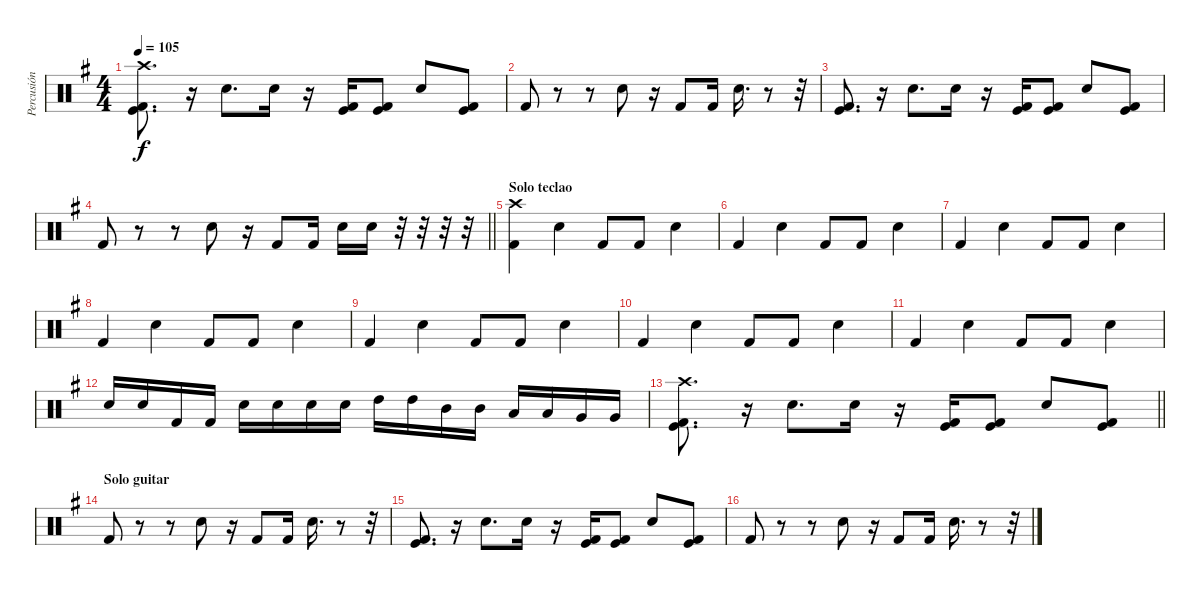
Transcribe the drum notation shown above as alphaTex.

\track ("Percusión" "Percusión") {instrument percussion}
\staff {score}
\articulation defaults
\ts (4 4)
\tempo 105
\clef neutral
\ks g
("Crash high (hit)" "Kick (hit)" "Kick (hit) 2").8{d dy f} r.16 "Electric Snare (hit)".8{d} "Electric Snare (hit)".16 r.16 ("Kick (hit)" "Kick (hit) 2").16 ("Kick (hit)" "Kick (hit) 2").8 "Electric Snare (hit)".8 ("Kick (hit)" "Kick (hit) 2").8 |
"Kick (hit) 2".8 r.8 r.8 "Electric Snare (hit)".8 r.16 "Kick (hit) 2".8 "Kick (hit) 2".16 "Electric Snare (hit)".16{d} r.8 r.32 |
("Kick (hit)" "Kick (hit) 2").8{d} r.16 "Electric Snare (hit)".8{d} "Electric Snare (hit)".16 r.16 ("Kick (hit)" "Kick (hit) 2").16 ("Kick (hit)" "Kick (hit) 2").8 "Electric Snare (hit)".8 ("Kick (hit)" "Kick (hit) 2").8 |
\barLineRight lightlight "Kick (hit) 2".8
r.8 r.8 "Electric Snare (hit)".8 r.16 "Kick (hit) 2".8 "Kick (hit) 2".16 "Electric Snare (hit)".16 "Electric Snare (hit)".16 r.32 r.32 r.32 r.32 |
\section ("" "Solo teclao")
("Crash high (hit)" "Kick (hit) 2").4 "Electric Snare (hit)".4 "Kick (hit) 2".8 "Kick (hit) 2".8 "Electric Snare (hit)".4 |
"Kick (hit) 2".4 "Electric Snare (hit)".4 "Kick (hit) 2".8 "Kick (hit) 2".8 "Electric Snare (hit)".4 |
"Kick (hit) 2".4 "Electric Snare (hit)".4 "Kick (hit) 2".8 "Kick (hit) 2".8 "Electric Snare (hit)".4 |
"Kick (hit) 2".4 "Electric Snare (hit)".4 "Kick (hit) 2".8 "Kick (hit) 2".8 "Electric Snare (hit)".4 |
"Kick (hit) 2".4 "Electric Snare (hit)".4 "Kick (hit) 2".8 "Kick (hit) 2".8 "Electric Snare (hit)".4 |
"Kick (hit) 2".4 "Electric Snare (hit)".4 "Kick (hit) 2".8 "Kick (hit) 2".8 "Electric Snare (hit)".4 |
"Kick (hit) 2".4 "Electric Snare (hit)".4 "Kick (hit) 2".8 "Kick (hit) 2".8 "Electric Snare (hit)".4 |
"Electric Snare (hit)".16 "Electric Snare (hit)".16 "Kick (hit) 2".16 "Kick (hit) 2".16 "Electric Snare (hit)".16 "Electric Snare (hit)".16 "Electric Snare (hit)".16 "Electric Snare (hit)".16 "High Tom (hit)".16 "High Tom (hit)".16 "Mid Tom (hit)".16 "Mid Tom (hit)".16 "Low Tom (hit)".16 "Low Tom (hit)".16 "Very Low Tom (hit)".16 "Very Low Tom (hit)".16 |
\barLineRight lightlight
("Crash high (hit)" "Kick (hit)" "Kick (hit) 2").8{d} r.16 "Electric Snare (hit)".8{d} "Electric Snare (hit)".16 r.16 ("Kick (hit)" "Kick (hit) 2").16 ("Kick (hit)" "Kick (hit) 2").8 "Electric Snare (hit)".8 ("Kick (hit)" "Kick (hit) 2").8 |
\section ("" "Solo guitar")
"Kick (hit) 2".8 r.8 r.8 "Electric Snare (hit)".8 r.16 "Kick (hit) 2".8 "Kick (hit) 2".16 "Electric Snare (hit)".16{d} r.8 r.32 |
("Kick (hit)" "Kick (hit) 2").8{d} r.16 "Electric Snare (hit)".8{d} "Electric Snare (hit)".16 r.16 ("Kick (hit)" "Kick (hit) 2").16 ("Kick (hit)" "Kick (hit) 2").8 "Electric Snare (hit)".8 ("Kick (hit)" "Kick (hit) 2").8 |
"Kick (hit) 2".8 r.8 r.8 "Electric Snare (hit)".8 r.16 "Kick (hit) 2".8 "Kick (hit) 2".16 "Electric Snare (hit)".16{d} r.8 r.32
